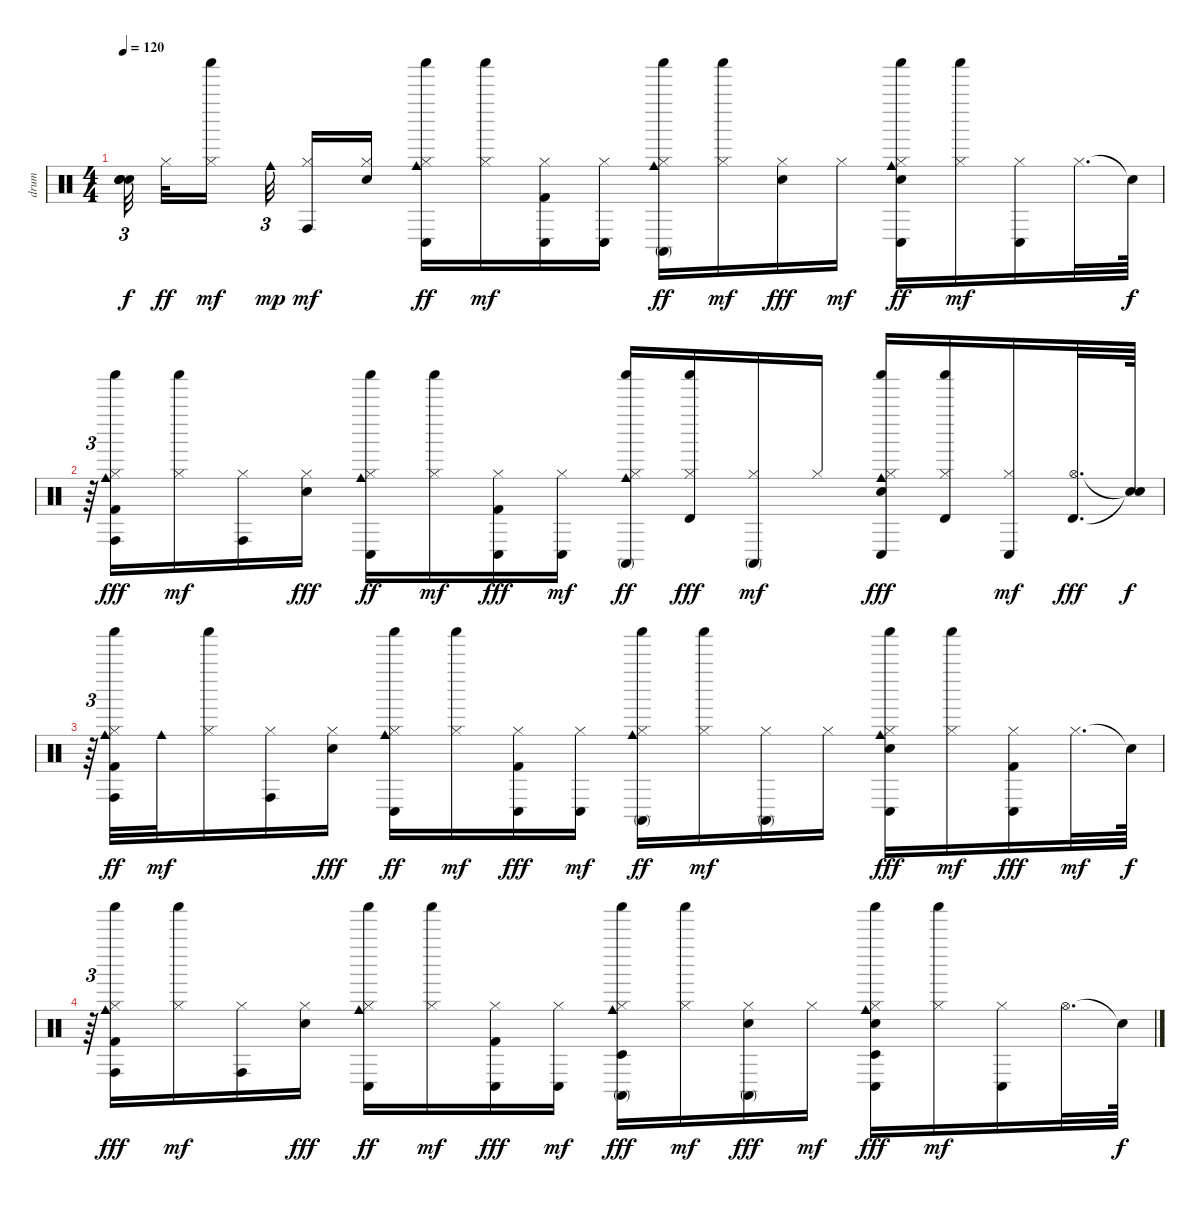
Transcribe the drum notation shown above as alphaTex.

\track ("drum" "drum") {instrument percussion}
\staff {score}
\articulation defaults
\ts (4 4)
\tempo 120
\clef neutral
\ks c
("Snare (hit)"{t} "Snare (hit)"{t} "Snare (hit)"{t} "Snare (hit)"{t}).32{tu (3 2) dy f beam splitsecondary} "Hi-Hat (closed)".32{dy ff} ("Shaker (hit)" "Hi-Hat (closed)").16{dy mf beam splitsecondary} "Cowbell medium (hit)".32{tu (3 2) dy mp beam splitsecondary} ("Conga high (hit)" "Hi-Hat (closed)").16{dy mf} ("Electric Snare (hit)" "Hi-Hat (closed)").16 ("Conga low (hit)" "Shaker (hit)" "Cowbell medium (hit)" "Hi-Hat (closed)").16{dy ff} ("Shaker (hit)" "Hi-Hat (closed)").16{dy mf} ("Conga low (hit)" "Kick (hit) 2" "Hi-Hat (closed)").16 ("Conga low (hit)" "Hi-Hat (closed)").16 ("Conga high (mute)" "Cowbell medium (hit)" "Shaker (hit)" "Hi-Hat (closed)").16{dy ff} ("Shaker (hit)" "Hi-Hat (closed)").16{dy mf} ("Hi-Hat (closed)" "Electric Snare (hit)").16{dy fff} "Hi-Hat (closed)".16{dy mf} ("Conga low (hit)" "Shaker (hit)" "Cowbell medium (hit)" "Electric Snare (hit)" "Hi-Hat (closed)").16{dy ff} ("Shaker (hit)" "Hi-Hat (closed)").16{dy mf} ("Conga low (hit)" "Hi-Hat (closed)").16 "Hi-Hat (closed)".32{d} "Snare (hit)"{t}.64{dy f} |
r.64{tu (3 2)} ("Conga high (hit)" "Shaker (hit)" "Cowbell medium (hit)" "Hi-Hat (closed)" "Kick (hit) 2").16{dy fff} ("Hi-Hat (closed)" "Shaker (hit)").16{dy mf} ("Conga high (hit)" "Hi-Hat (closed)").16 ("Hi-Hat (closed)" "Electric Snare (hit)").16{dy fff} ("Conga low (hit)" "Cowbell medium (hit)" "Shaker (hit)" "Hi-Hat (closed)").16{dy ff} ("Shaker (hit)" "Hi-Hat (closed)").16{dy mf} ("Conga low (hit)" "Hi-Hat (closed)" "Kick (hit) 2").16{dy fff} ("Conga low (hit)" "Hi-Hat (closed)").16{dy mf} ("Conga high (mute)" "Cowbell medium (hit)" "Shaker (hit)" "Hi-Hat (closed)").16{dy ff} ("Shaker (hit)" "Hi-Hat (closed)" "Timbale high (hit)").16{dy fff} ("Conga high (mute)" "Hi-Hat (closed)").16{dy mf} "Hi-Hat (closed)".16 ("Conga low (hit)" "Shaker (hit)" "Cowbell medium (hit)" "Hi-Hat (closed)" "Electric Snare (hit)").16{dy fff} ("Shaker (hit)" "Hi-Hat (closed)" "Timbale high (hit)").16 ("Conga low (hit)" "Hi-Hat (closed)").16{dy mf} ("Hi-Hat (open)" "Timbale high (hit)").32{d dy fff} ("Snare (hit)"{t} "Snare (hit)"{t}).64{dy f} |
r.64{tu (3 2)} ("Conga high (hit)" "Shaker (hit)" "Cowbell medium (hit)" "Kick (hit) 2" "Hi-Hat (closed)").32{dy ff} "Cowbell medium (hit)".32{dy mf} ("Shaker (hit)" "Hi-Hat (closed)").16 ("Conga high (hit)" "Hi-Hat (closed)").16 ("Hi-Hat (closed)" "Electric Snare (hit)").16{dy fff} ("Conga low (hit)" "Shaker (hit)" "Cowbell medium (hit)" "Hi-Hat (closed)").16{dy ff} ("Shaker (hit)" "Hi-Hat (closed)").16{dy mf} ("Conga low (hit)" "Hi-Hat (closed)" "Kick (hit) 2").16{dy fff} ("Conga low (hit)" "Hi-Hat (closed)").16{dy mf} ("Conga high (mute)" "Cowbell medium (hit)" "Shaker (hit)" "Hi-Hat (closed)").16{dy ff} ("Shaker (hit)" "Hi-Hat (closed)").16{dy mf} ("Conga high (mute)" "Hi-Hat (closed)").16 "Hi-Hat (closed)".16 ("Conga low (hit)" "Cowbell medium (hit)" "Shaker (hit)" "Hi-Hat (closed)" "Electric Snare (hit)").16{dy fff} ("Shaker (hit)" "Hi-Hat (closed)").16{dy mf} ("Conga low (hit)" "Hi-Hat (closed)" "Kick (hit) 2").16{dy fff} "Hi-Hat (closed)".32{d dy mf} "Snare (hit)"{t}.64{dy f} |
r.64{tu (3 2)} ("Conga high (hit)" "Cowbell medium (hit)" "Shaker (hit)" "Hi-Hat (closed)" "Kick (hit) 2").16{dy fff} ("Shaker (hit)" "Hi-Hat (closed)").16{dy mf} ("Conga high (hit)" "Hi-Hat (closed)").16 ("Hi-Hat (closed)" "Electric Snare (hit)").16{dy fff} ("Conga low (hit)" "Cowbell medium (hit)" "Shaker (hit)" "Hi-Hat (closed)").16{dy ff} ("Shaker (hit)" "Hi-Hat (closed)").16{dy mf} ("Conga low (hit)" "Hi-Hat (closed)" "Kick (hit) 2").16{dy fff} ("Conga low (hit)" "Hi-Hat (closed)").16{dy mf} ("Conga high (mute)" "Cowbell medium (hit)" "Shaker (hit)" "Hi-Hat (closed)" "Timbale low (hit)").16{dy fff} ("Shaker (hit)" "Hi-Hat (closed)").16{dy mf} ("Conga high (mute)" "Hi-Hat (closed)" "Electric Snare (hit)").16{dy fff} "Hi-Hat (closed)".16{dy mf} ("Conga low (hit)" "Hi-Hat (closed)" "Shaker (hit)" "Cowbell medium (hit)" "Electric Snare (hit)" "Timbale low (hit)").16{dy fff} ("Shaker (hit)" "Hi-Hat (closed)").16{dy mf} ("Conga low (hit)" "Hi-Hat (closed)").16 "Hi-Hat (open)".32{d} "Snare (hit)"{t}.64{dy f}
